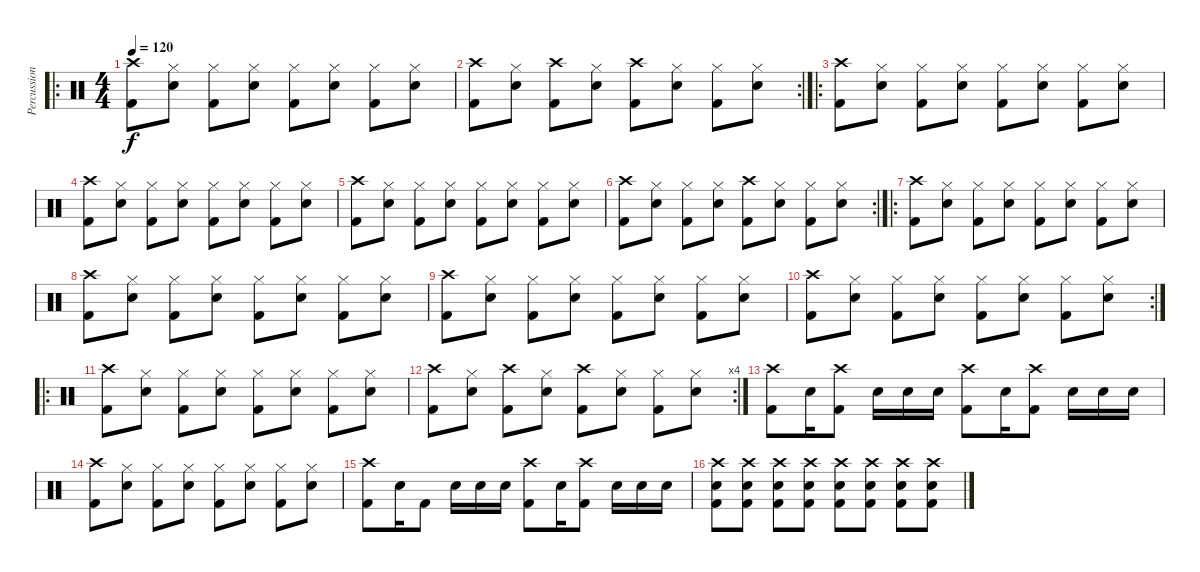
\track ("Percussion" "Percussion") {instrument percussion}
\staff {score}
\articulation defaults
\ro
\ts (4 4)
\tempo 120
\clef neutral
\ks c
("Crash high (hit)" "Kick (hit) 2").8{dy f} ("Hi-Hat (closed)" "Snare (hit) 2").8 ("Hi-Hat (closed)" "Kick (hit) 2").8 ("Hi-Hat (closed)" "Snare (hit) 2").8 ("Hi-Hat (closed)" "Kick (hit) 2").8 ("Hi-Hat (closed)" "Snare (hit) 2").8 ("Hi-Hat (closed)" "Kick (hit) 2").8 ("Hi-Hat (closed)" "Snare (hit) 2").8 |
\rc 2
("Crash high (hit)" "Kick (hit) 2").8 ("Hi-Hat (closed)" "Snare (hit) 2").8 ("Crash high (hit)" "Kick (hit) 2").8 ("Hi-Hat (closed)" "Snare (hit) 2").8 ("Crash high (hit)" "Kick (hit) 2").8 ("Hi-Hat (closed)" "Snare (hit) 2").8 ("Hi-Hat (closed)" "Kick (hit) 2").8 ("Hi-Hat (closed)" "Snare (hit) 2").8 |
\ro
("Crash high (hit)" "Kick (hit) 2").8 ("Hi-Hat (closed)" "Snare (hit) 2").8 ("Hi-Hat (closed)" "Kick (hit) 2").8 ("Hi-Hat (closed)" "Snare (hit) 2").8 ("Hi-Hat (closed)" "Kick (hit) 2").8 ("Hi-Hat (closed)" "Snare (hit) 2").8 ("Hi-Hat (closed)" "Kick (hit) 2").8 ("Hi-Hat (closed)" "Snare (hit) 2").8 |
("Crash high (hit)" "Kick (hit) 2").8 ("Hi-Hat (closed)" "Snare (hit) 2").8 ("Hi-Hat (closed)" "Kick (hit) 2").8 ("Hi-Hat (closed)" "Snare (hit) 2").8 ("Hi-Hat (closed)" "Kick (hit) 2").8 ("Hi-Hat (closed)" "Snare (hit) 2").8 ("Hi-Hat (closed)" "Kick (hit) 2").8 ("Hi-Hat (closed)" "Snare (hit) 2").8 |
("Crash high (hit)" "Kick (hit) 2").8 ("Hi-Hat (closed)" "Snare (hit) 2").8 ("Hi-Hat (closed)" "Kick (hit) 2").8 ("Hi-Hat (closed)" "Snare (hit) 2").8 ("Hi-Hat (closed)" "Kick (hit) 2").8 ("Hi-Hat (closed)" "Snare (hit) 2").8 ("Hi-Hat (closed)" "Kick (hit) 2").8 ("Hi-Hat (closed)" "Snare (hit) 2").8 |
\rc 2
("Crash high (hit)" "Kick (hit) 2").8 ("Hi-Hat (closed)" "Snare (hit) 2").8 ("Hi-Hat (closed)" "Kick (hit) 2").8 ("Hi-Hat (closed)" "Snare (hit) 2").8 ("Crash high (hit)" "Kick (hit) 2").8 ("Hi-Hat (closed)" "Snare (hit) 2").8 ("Hi-Hat (closed)" "Kick (hit) 2").8 ("Hi-Hat (closed)" "Snare (hit) 2").8 |
\ro
("Crash high (hit)" "Kick (hit) 2").8 ("Hi-Hat (closed)" "Snare (hit) 2").8 ("Hi-Hat (closed)" "Kick (hit) 2").8 ("Hi-Hat (closed)" "Snare (hit) 2").8 ("Hi-Hat (closed)" "Kick (hit) 2").8 ("Hi-Hat (closed)" "Snare (hit) 2").8 ("Hi-Hat (closed)" "Kick (hit) 2").8 ("Hi-Hat (closed)" "Snare (hit) 2").8 |
("Crash high (hit)" "Kick (hit) 2").8 ("Hi-Hat (closed)" "Snare (hit) 2").8 ("Hi-Hat (closed)" "Kick (hit) 2").8 ("Hi-Hat (closed)" "Snare (hit) 2").8 ("Hi-Hat (closed)" "Kick (hit) 2").8 ("Hi-Hat (closed)" "Snare (hit) 2").8 ("Hi-Hat (closed)" "Kick (hit) 2").8 ("Hi-Hat (closed)" "Snare (hit) 2").8 |
("Crash high (hit)" "Kick (hit) 2").8 ("Hi-Hat (closed)" "Snare (hit) 2").8 ("Hi-Hat (closed)" "Kick (hit) 2").8 ("Hi-Hat (closed)" "Snare (hit) 2").8 ("Hi-Hat (closed)" "Kick (hit) 2").8 ("Hi-Hat (closed)" "Snare (hit) 2").8 ("Hi-Hat (closed)" "Kick (hit) 2").8 ("Hi-Hat (closed)" "Snare (hit) 2").8 |
\rc 2
("Crash high (hit)" "Kick (hit) 2").8 ("Hi-Hat (closed)" "Snare (hit) 2").8 ("Hi-Hat (closed)" "Kick (hit) 2").8 ("Hi-Hat (closed)" "Snare (hit) 2").8 ("Hi-Hat (closed)" "Kick (hit) 2").8 ("Hi-Hat (closed)" "Snare (hit) 2").8 ("Hi-Hat (closed)" "Kick (hit) 2").8 ("Hi-Hat (closed)" "Snare (hit) 2").8 |
\ro
("Crash high (hit)" "Kick (hit) 2").8 ("Hi-Hat (closed)" "Snare (hit) 2").8 ("Hi-Hat (closed)" "Kick (hit) 2").8 ("Hi-Hat (closed)" "Snare (hit) 2").8 ("Hi-Hat (closed)" "Kick (hit) 2").8 ("Hi-Hat (closed)" "Snare (hit) 2").8 ("Hi-Hat (closed)" "Kick (hit) 2").8 ("Hi-Hat (closed)" "Snare (hit) 2").8 |
\rc 4
("Crash high (hit)" "Kick (hit) 2").8 ("Hi-Hat (closed)" "Snare (hit) 2").8 ("Crash high (hit)" "Kick (hit) 2").8 ("Hi-Hat (closed)" "Snare (hit) 2").8 ("Crash high (hit)" "Kick (hit) 2").8 ("Hi-Hat (closed)" "Snare (hit) 2").8 ("Hi-Hat (closed)" "Kick (hit) 2").8 ("Hi-Hat (closed)" "Snare (hit) 2").8 |
("Crash high (hit)" "Kick (hit) 2").8 "Snare (hit) 2".16 ("Crash high (hit)" "Kick (hit) 2").8 "Snare (hit) 2".16 "Snare (hit) 2".16 "Snare (hit) 2".16 ("Crash high (hit)" "Kick (hit) 2").8 "Snare (hit) 2".16 ("Crash high (hit)" "Kick (hit) 2").8 "Snare (hit) 2".16 "Snare (hit) 2".16 "Snare (hit) 2".16 |
("Crash high (hit)" "Kick (hit) 2").8 ("Hi-Hat (closed)" "Snare (hit) 2").8 ("Hi-Hat (closed)" "Kick (hit) 2").8 ("Hi-Hat (closed)" "Snare (hit) 2").8 ("Hi-Hat (closed)" "Kick (hit) 2").8 ("Hi-Hat (closed)" "Snare (hit) 2").8 ("Hi-Hat (closed)" "Kick (hit) 2").8 ("Hi-Hat (closed)" "Snare (hit) 2").8 |
("Crash high (hit)" "Kick (hit) 2").8 "Snare (hit) 2".16 "Kick (hit) 2".8 "Snare (hit) 2".16 "Snare (hit) 2".16 "Snare (hit) 2".16 ("Crash high (hit)" "Kick (hit) 2").8 "Snare (hit) 2".16 ("Crash high (hit)" "Kick (hit) 2").8 "Snare (hit) 2".16 "Snare (hit) 2".16 "Snare (hit) 2".16 |
("Crash high (hit)" "Snare (hit) 2" "Kick (hit) 2").8 ("Crash high (hit)" "Snare (hit) 2" "Kick (hit) 2").8 ("Crash high (hit)" "Snare (hit) 2" "Kick (hit) 2").8 ("Crash high (hit)" "Snare (hit) 2" "Kick (hit) 2").8 ("Crash high (hit)" "Snare (hit) 2" "Kick (hit) 2").8 ("Crash high (hit)" "Snare (hit) 2" "Kick (hit) 2").8 ("Crash high (hit)" "Snare (hit) 2" "Kick (hit) 2").8 ("Crash high (hit)" "Snare (hit) 2" "Kick (hit) 2").8
